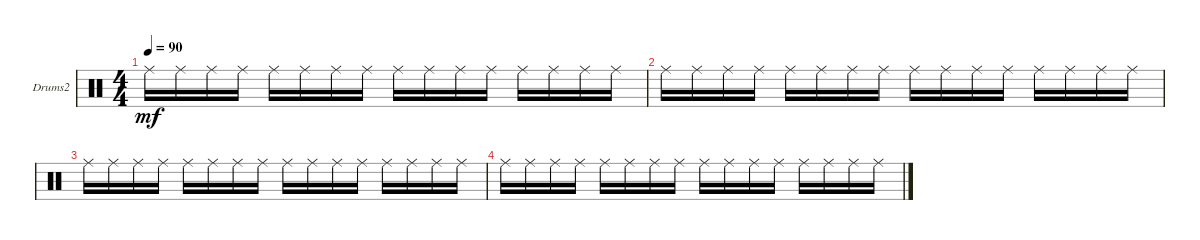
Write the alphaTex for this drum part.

\defaultSystemsLayout 4
\bracketExtendMode groupsimilarinstruments
\firstSystemTrackNameOrientation horizontal
\otherSystemsTrackNameOrientation horizontal
\track ("Drums2" "Drums2") {instrument percussion}
\staff {score}
\articulation defaults
\ts (4 4)
\tempo 90
\clef neutral
\scale
0.474178
\ks c "Ride (middle)".16{dy mf} "Ride (middle)".16 "Ride (middle)".16 "Ride (middle)".16 "Ride (middle)".16 "Ride (middle)".16 "Ride (middle)".16 "Ride (middle)".16 "Ride (middle)".16 "Ride (middle)".16 "Ride (middle)".16 "Ride (middle)".16 "Ride (middle)".16 "Ride (middle)".16 "Ride (middle)".16 "Ride (middle)".16
|
\scale
0.262911 "Ride (middle)".16 "Ride (middle)".16 "Ride (middle)".16 "Ride (middle)".16 "Ride (middle)".16 "Ride (middle)".16 "Ride (middle)".16 "Ride (middle)".16 "Ride (middle)".16 "Ride (middle)".16 "Ride (middle)".16 "Ride (middle)".16 "Ride (middle)".16 "Ride (middle)".16 "Ride (middle)".16 "Ride (middle)".16 |
\scale
0.262911 "Ride (middle)".16 "Ride (middle)".16 "Ride (middle)".16 "Ride (middle)".16 "Ride (middle)".16 "Ride (middle)".16 "Ride (middle)".16 "Ride (middle)".16 "Ride (middle)".16 "Ride (middle)".16 "Ride (middle)".16 "Ride (middle)".16 "Ride (middle)".16 "Ride (middle)".16 "Ride (middle)".16 "Ride (middle)".16 |
\scale
0.333333 "Ride (middle)".16 "Ride (middle)".16 "Ride (middle)".16 "Ride (middle)".16 "Ride (middle)".16 "Ride (middle)".16 "Ride (middle)".16 "Ride (middle)".16 "Ride (middle)".16 "Ride (middle)".16 "Ride (middle)".16 "Ride (middle)".16 "Ride (middle)".16 "Ride (middle)".16 "Ride (middle)".16 "Ride (middle)".16 |
\scale
0.333333 |
\scale
0.333333 |
\scale
0.333333 |
\scale
0.333333 |
\scale
0.333333 |
\scale
0.333333 |
\scale
0.333333 |
\scale
0.333333 |
\scale
0.333333 |
\scale
0.333333 |
\scale
0.333333 |
\scale
0.333333
